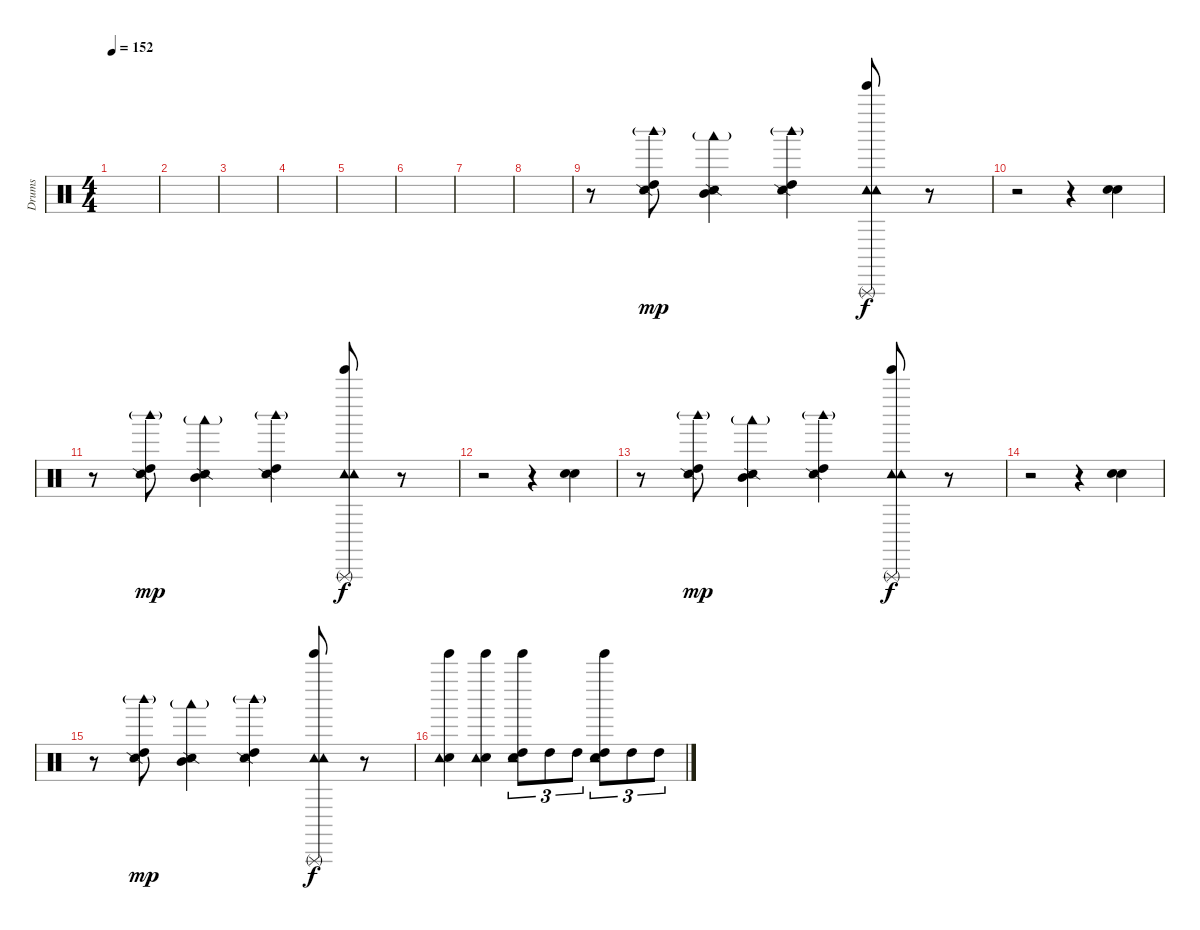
\track ("Drums" "Drums") {instrument percussion}
\staff {score}
\articulation defaults
\ts (4 4)
\tempo 152
\clef neutral
\ks c
|
|
|
|
|
|
|
|
r.8 ("Woodblock high (hit)"{g} "Snare (side stick) 2" "High Tom (hit)").8{dy mp} ("Woodblock low (hit)"{g} "Snare (side stick) 2" "Mid Tom (hit)").4 ("Woodblock high (hit)"{g} "Snare (side stick) 2" "High Tom (hit)").4 ("Tambourine (hit)" "Tambourine (hit)" "Tinkle Bell (hit)" "Triangle (rnute)").8{dy f} r.8 |
r.2 r.4 ("Snare (hit) 2" "Electric Snare (hit)").4 |
r.8 ("Woodblock high (hit)"{g} "Snare (side stick) 2" "High Tom (hit)").8{dy mp} ("Woodblock low (hit)"{g} "Snare (side stick) 2" "Mid Tom (hit)").4 ("Woodblock high (hit)"{g} "Snare (side stick) 2" "High Tom (hit)").4 ("Tambourine (hit)" "Tambourine (hit)" "Tinkle Bell (hit)" "Triangle (rnute)").8{dy f} r.8 |
r.2 r.4 ("Snare (hit) 2" "Electric Snare (hit)").4 |
r.8 ("Woodblock high (hit)"{g} "Snare (side stick) 2" "High Tom (hit)").8{dy mp} ("Woodblock low (hit)"{g} "Snare (side stick) 2" "Mid Tom (hit)").4 ("Woodblock high (hit)"{g} "Snare (side stick) 2" "High Tom (hit)").4 ("Tambourine (hit)" "Tambourine (hit)" "Tinkle Bell (hit)" "Triangle (rnute)").8{dy f} r.8 |
r.2 r.4 ("Snare (hit) 2" "Electric Snare (hit)").4 |
r.8 ("Woodblock high (hit)"{g} "Snare (side stick) 2" "High Tom (hit)").8{dy mp} ("Woodblock low (hit)"{g} "Snare (side stick) 2" "Mid Tom (hit)").4 ("Woodblock high (hit)"{g} "Snare (side stick) 2" "High Tom (hit)").4 ("Tambourine (hit)" "Tambourine (hit)" "Tinkle Bell (hit)" "Triangle (rnute)").8{dy f} r.8 |
("Snare (hit) 2" "Tambourine (hit)" "Tinkle Bell (hit)").4 ("Snare (hit) 2" "Tambourine (hit)" "Tinkle Bell (hit)").4 ("High Tom (hit)" "Snare (hit) 2" "Tambourine (hit)" "Tinkle Bell (hit)").8{tu (3 2)} "High Tom (hit)".8{tu (3 2)} "High Tom (hit)".8{tu (3 2)} ("High Tom (hit)" "Snare (hit) 2" "Tambourine (hit)" "Tinkle Bell (hit)").8{tu (3 2)} "High Tom (hit)".8{tu (3 2)} "High Tom (hit)".8{tu (3 2)}
